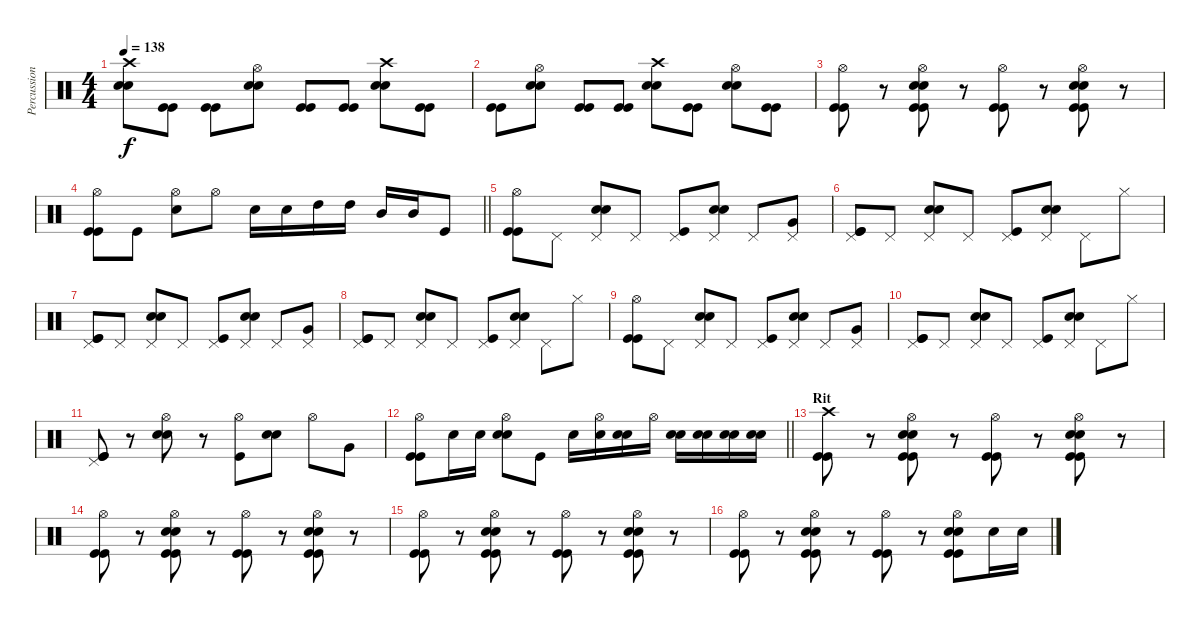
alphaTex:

\track ("Percussioni" "Percussion") {instrument percussion}
\staff {score}
\articulation defaults
\ts (4 4)
\tempo 138
\clef neutral
\ks c
("Crash high (hit)" "Snare (hit) 2" "Snare (hit) 2").8{dy f} ("Kick (hit)" "Kick (hit)").8 ("Kick (hit)" "Kick (hit)").8 ("Hi-Hat (open)" "Snare (hit) 2" "Snare (hit) 2").8 ("Kick (hit)" "Kick (hit)").8 ("Kick (hit)" "Kick (hit)").8 ("Crash high (hit)" "Snare (hit) 2" "Snare (hit) 2").8 ("Kick (hit)" "Kick (hit)").8 |
("Kick (hit)" "Kick (hit)").8 ("Hi-Hat (open)" "Snare (hit) 2" "Snare (hit) 2").8 ("Kick (hit)" "Kick (hit)").8 ("Kick (hit)" "Kick (hit)").8 ("Crash high (hit)" "Snare (hit) 2" "Snare (hit) 2").8 ("Kick (hit)" "Kick (hit)").8 ("Hi-Hat (open)" "Snare (hit) 2" "Snare (hit) 2").8 ("Kick (hit)" "Kick (hit)").8 |
("Hi-Hat (open)" "Kick (hit)" "Kick (hit)").8 r.8 ("Hi-Hat (open)" "Snare (hit) 2" "Snare (hit) 2" "Kick (hit)" "Kick (hit)").8 r.8 ("Hi-Hat (open)" "Kick (hit)" "Kick (hit)").8 r.8 ("Hi-Hat (open)" "Snare (hit) 2" "Snare (hit) 2" "Kick (hit)" "Kick (hit)").8 r.8 |
\barLineRight lightlight
("Hi-Hat (open)" "Kick (hit)" "Kick (hit)").8 "Kick (hit)".8 ("Hi-Hat (open)" "Snare (hit) 2").8 "Hi-Hat (open)".8 "Snare (hit) 2".16 "Snare (hit) 2".16 "High Tom (hit)".16 "High Tom (hit)".16 "Mid Tom (hit)".16 "Mid Tom (hit)".16 "Kick (hit)".8 |
("Hi-Hat (open)" "Kick (hit)" "Kick (hit)").8 "Pedal Hi-Hat (hit)".8 ("Pedal Hi-Hat (hit)" "Snare (hit) 2" "Snare (hit) 2").8 "Pedal Hi-Hat (hit)".8 ("Pedal Hi-Hat (hit)" "Kick (hit)").8 ("Pedal Hi-Hat (hit)" "Snare (hit) 2" "Snare (hit) 2").8 "Pedal Hi-Hat (hit)".8 ("Pedal Hi-Hat (hit)" "Very Low Tom (hit)").8 |
("Pedal Hi-Hat (hit)" "Kick (hit)" "Kick (hit)").8 "Pedal Hi-Hat (hit)".8 ("Pedal Hi-Hat (hit)" "Snare (hit) 2" "Snare (hit) 2").8 "Pedal Hi-Hat (hit)".8 ("Pedal Hi-Hat (hit)" "Kick (hit)").8 ("Pedal Hi-Hat (hit)" "Snare (hit) 2" "Snare (hit) 2").8 "Pedal Hi-Hat (hit)".8 "Hi-Hat (closed)".8 |
("Pedal Hi-Hat (hit)" "Kick (hit)" "Kick (hit)").8 "Pedal Hi-Hat (hit)".8 ("Pedal Hi-Hat (hit)" "Snare (hit) 2" "Snare (hit) 2").8 "Pedal Hi-Hat (hit)".8 ("Pedal Hi-Hat (hit)" "Kick (hit)").8 ("Pedal Hi-Hat (hit)" "Snare (hit) 2" "Snare (hit) 2").8 "Pedal Hi-Hat (hit)".8 ("Pedal Hi-Hat (hit)" "Very Low Tom (hit)").8 |
("Pedal Hi-Hat (hit)" "Kick (hit)" "Kick (hit)").8 "Pedal Hi-Hat (hit)".8 ("Pedal Hi-Hat (hit)" "Snare (hit) 2" "Snare (hit) 2").8 "Pedal Hi-Hat (hit)".8 ("Pedal Hi-Hat (hit)" "Kick (hit)").8 ("Pedal Hi-Hat (hit)" "Snare (hit) 2" "Snare (hit) 2").8 "Pedal Hi-Hat (hit)".8 "Hi-Hat (closed)".8 |
("Hi-Hat (open)" "Kick (hit)" "Kick (hit)").8 "Pedal Hi-Hat (hit)".8 ("Pedal Hi-Hat (hit)" "Snare (hit) 2" "Snare (hit) 2").8 "Pedal Hi-Hat (hit)".8 ("Pedal Hi-Hat (hit)" "Kick (hit)").8 ("Pedal Hi-Hat (hit)" "Snare (hit) 2" "Snare (hit) 2").8 "Pedal Hi-Hat (hit)".8 ("Pedal Hi-Hat (hit)" "Very Low Tom (hit)").8 |
("Pedal Hi-Hat (hit)" "Kick (hit)" "Kick (hit)").8 "Pedal Hi-Hat (hit)".8 ("Pedal Hi-Hat (hit)" "Snare (hit) 2" "Snare (hit) 2").8 "Pedal Hi-Hat (hit)".8 ("Pedal Hi-Hat (hit)" "Kick (hit)").8 ("Pedal Hi-Hat (hit)" "Snare (hit) 2" "Snare (hit) 2").8 "Pedal Hi-Hat (hit)".8 "Hi-Hat (closed)".8 |
("Pedal Hi-Hat (hit)" "Kick (hit)" "Kick (hit)").8 r.8 ("Hi-Hat (open)" "Snare (hit) 2" "Snare (hit) 2").8 r.8 ("Hi-Hat (open)" "Kick (hit)").8 ("Snare (hit) 2" "Snare (hit) 2").8 "Hi-Hat (open)".8 "Very Low Tom (hit)".8 |
\barLineRight lightlight
("Hi-Hat (open)" "Kick (hit)" "Kick (hit)").8 "Snare (hit) 2".16 "Snare (hit) 2".16 ("Hi-Hat (open)" "Snare (hit) 2" "Snare (hit) 2").8 "Kick (hit)".8 "Snare (hit) 2".16 ("Hi-Hat (open)" "Snare (hit) 2").16 ("Snare (hit) 2" "Snare (hit) 2").16 "Hi-Hat (open)".16 ("Snare (hit) 2" "Snare (hit) 2").16 ("Snare (hit) 2" "Snare (hit) 2").16 ("Snare (hit) 2" "Snare (hit) 2").16 ("Snare (hit) 2" "Snare (hit) 2").16 |
\section ("" "Rit")
("Crash high (hit)" "Kick (hit)" "Kick (hit)").8 r.8 ("Hi-Hat (open)" "Snare (hit) 2" "Snare (hit) 2" "Kick (hit)" "Kick (hit)").8 r.8 ("Hi-Hat (open)" "Kick (hit)" "Kick (hit)").8 r.8 ("Hi-Hat (open)" "Snare (hit) 2" "Snare (hit) 2" "Kick (hit)" "Kick (hit)").8 r.8 |
("Hi-Hat (open)" "Kick (hit)" "Kick (hit)").8 r.8 ("Hi-Hat (open)" "Snare (hit) 2" "Snare (hit) 2" "Kick (hit)" "Kick (hit)").8 r.8 ("Hi-Hat (open)" "Kick (hit)" "Kick (hit)").8 r.8 ("Hi-Hat (open)" "Snare (hit) 2" "Snare (hit) 2" "Kick (hit)" "Kick (hit)").8 r.8 |
("Hi-Hat (open)" "Kick (hit)" "Kick (hit)").8 r.8 ("Hi-Hat (open)" "Snare (hit) 2" "Snare (hit) 2" "Kick (hit)" "Kick (hit)").8 r.8 ("Hi-Hat (open)" "Kick (hit)" "Kick (hit)").8 r.8 ("Hi-Hat (open)" "Snare (hit) 2" "Snare (hit) 2" "Kick (hit)" "Kick (hit)").8 r.8 |
("Hi-Hat (open)" "Kick (hit)" "Kick (hit)").8 r.8 ("Hi-Hat (open)" "Snare (hit) 2" "Snare (hit) 2" "Kick (hit)" "Kick (hit)").8 r.8 ("Hi-Hat (open)" "Kick (hit)" "Kick (hit)").8 r.8 ("Hi-Hat (open)" "Snare (hit) 2" "Snare (hit) 2" "Kick (hit)" "Kick (hit)").8 "Snare (hit) 2".16 "Snare (hit) 2".16
